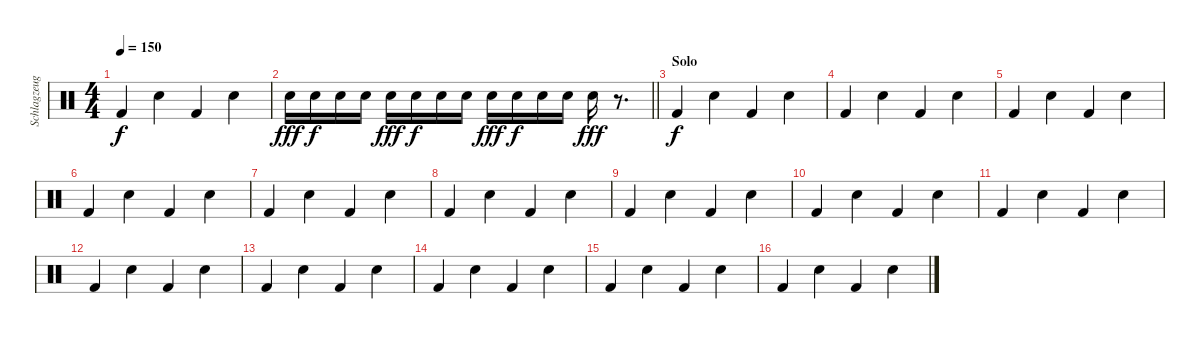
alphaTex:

\track ("Schlagzeug" "Schlagzeug") {instrument percussion}
\staff {score}
\articulation defaults
\ts (4 4)
\tempo 150
\clef neutral
\ks c "Kick (hit) 2".4{dy f} "Electric Snare (hit)".4 "Kick (hit) 2".4 "Electric Snare (hit)".4
|
\barLineRight lightlight "Electric Snare (hit)".16{dy fff} "Electric Snare (hit)".16{dy f} "Electric Snare (hit)".16 "Electric Snare (hit)".16 "Electric Snare (hit)".16{dy fff} "Electric Snare (hit)".16{dy f} "Electric Snare (hit)".16 "Electric Snare (hit)".16 "Electric Snare (hit)".16{dy fff} "Electric Snare (hit)".16{dy f} "Electric Snare (hit)".16 "Electric Snare (hit)".16 "Electric Snare (hit)".16{dy fff}
r.8{d} |
\section ("" "Solo")
"Kick (hit) 2".4{dy f} "Electric Snare (hit)".4 "Kick (hit) 2".4 "Electric Snare (hit)".4 |
"Kick (hit) 2".4 "Electric Snare (hit)".4 "Kick (hit) 2".4 "Electric Snare (hit)".4 |
"Kick (hit) 2".4 "Electric Snare (hit)".4 "Kick (hit) 2".4 "Electric Snare (hit)".4 |
"Kick (hit) 2".4 "Electric Snare (hit)".4 "Kick (hit) 2".4 "Electric Snare (hit)".4 |
"Kick (hit) 2".4 "Electric Snare (hit)".4 "Kick (hit) 2".4 "Electric Snare (hit)".4 |
"Kick (hit) 2".4 "Electric Snare (hit)".4 "Kick (hit) 2".4 "Electric Snare (hit)".4 |
"Kick (hit) 2".4 "Electric Snare (hit)".4 "Kick (hit) 2".4 "Electric Snare (hit)".4 |
"Kick (hit) 2".4 "Electric Snare (hit)".4 "Kick (hit) 2".4 "Electric Snare (hit)".4 |
"Kick (hit) 2".4 "Electric Snare (hit)".4 "Kick (hit) 2".4 "Electric Snare (hit)".4 |
"Kick (hit) 2".4 "Electric Snare (hit)".4 "Kick (hit) 2".4 "Electric Snare (hit)".4 |
"Kick (hit) 2".4 "Electric Snare (hit)".4 "Kick (hit) 2".4 "Electric Snare (hit)".4 |
"Kick (hit) 2".4 "Electric Snare (hit)".4 "Kick (hit) 2".4 "Electric Snare (hit)".4 |
"Kick (hit) 2".4 "Electric Snare (hit)".4 "Kick (hit) 2".4 "Electric Snare (hit)".4 |
"Kick (hit) 2".4 "Electric Snare (hit)".4 "Kick (hit) 2".4 "Electric Snare (hit)".4
